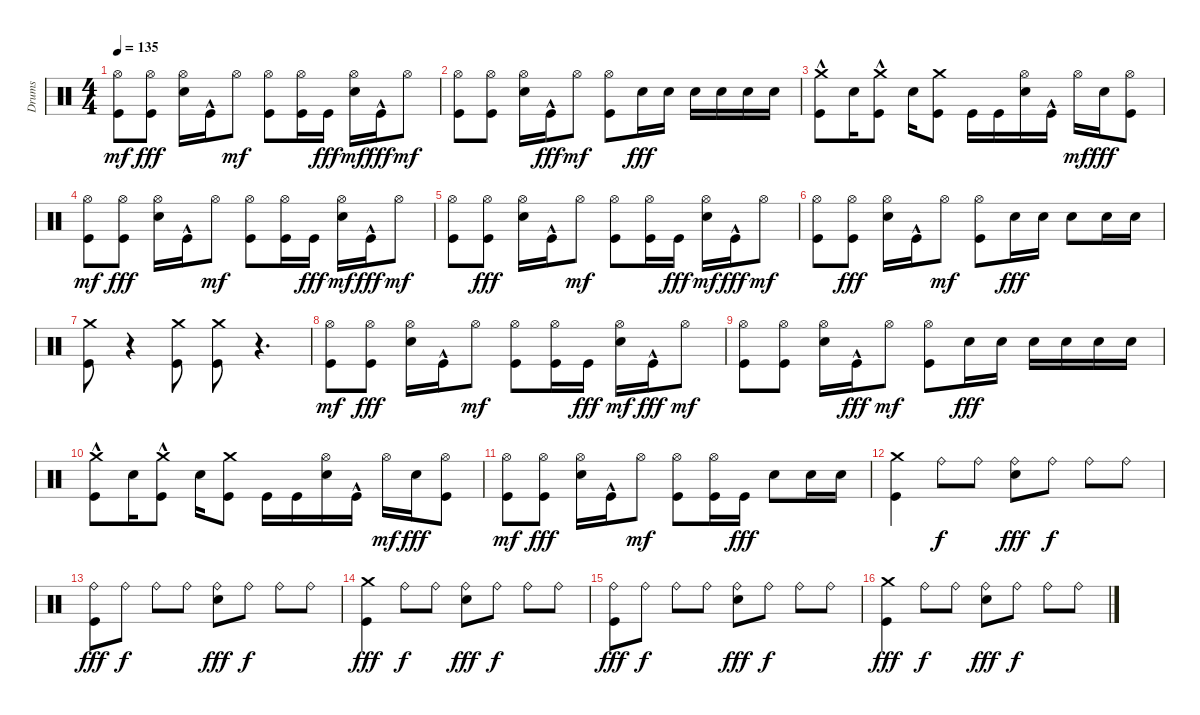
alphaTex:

\track ("Drums" "Drums") {instrument percussion}
\staff {score}
\articulation defaults
\ts (4 4)
\tempo 135
\clef neutral
\ks c
("Kick (hit)" "Hi-Hat (open)").8{dy mf} ("Hi-Hat (open)" "Kick (hit)").8{dy fff} ("Hi-Hat (open)" "Electric Snare (hit)").16 "Kick (hit)"{hac}.16 "Hi-Hat (open)".8{dy mf} ("Kick (hit)" "Hi-Hat (open)").8 ("Kick (hit)" "Hi-Hat (open)").16 "Kick (hit)".16{dy fff} ("Electric Snare (hit)" "Hi-Hat (open)").16{dy mf} "Kick (hit)"{hac}.16{dy fff} "Hi-Hat (open)".8{dy mf} |
("Kick (hit)" "Hi-Hat (open)").8 ("Kick (hit)" "Hi-Hat (open)").8 ("Electric Snare (hit)" "Hi-Hat (open)").16 "Kick (hit)"{hac}.16{dy fff} "Hi-Hat (open)".8{dy mf} ("Kick (hit)" "Hi-Hat (open)").8 "Electric Snare (hit)".16{dy fff} "Electric Snare (hit)".16 "Electric Snare (hit)".16 "Electric Snare (hit)".16 "Electric Snare (hit)".16 "Electric Snare (hit)".16 |
("Crash medium (hit)" "Kick (hit)"{hac}).8 "Electric Snare (hit)".16 ("Crash medium (hit)"{hac} "Kick (hit)"{hac}).8 "Electric Snare (hit)".16 ("Crash medium (hit)" "Kick (hit)").8 "Kick (hit)".16 "Kick (hit)".16 ("Hi-Hat (open)" "Electric Snare (hit)").16 "Kick (hit)"{hac}.16 "Hi-Hat (open)".16{dy mf} "Electric Snare (hit)".16{dy fff} ("Hi-Hat (open)" "Kick (hit)").8 |
("Kick (hit)" "Hi-Hat (open)").8{dy mf} ("Hi-Hat (open)" "Kick (hit)").8{dy fff} ("Hi-Hat (open)" "Electric Snare (hit)").16 "Kick (hit)"{hac}.16 "Hi-Hat (open)".8{dy mf} ("Kick (hit)" "Hi-Hat (open)").8 ("Kick (hit)" "Hi-Hat (open)").16 "Kick (hit)".16{dy fff} ("Electric Snare (hit)" "Hi-Hat (open)").16{dy mf} "Kick (hit)"{hac}.16{dy fff} "Hi-Hat (open)".8{dy mf} |
("Kick (hit)" "Hi-Hat (open)").8 ("Hi-Hat (open)" "Kick (hit)").8{dy fff} ("Hi-Hat (open)" "Electric Snare (hit)").16 "Kick (hit)"{hac}.16 "Hi-Hat (open)".8{dy mf} ("Kick (hit)" "Hi-Hat (open)").8 ("Kick (hit)" "Hi-Hat (open)").16 "Kick (hit)".16{dy fff} ("Electric Snare (hit)" "Hi-Hat (open)").16{dy mf} "Kick (hit)"{hac}.16{dy fff} "Hi-Hat (open)".8{dy mf} |
("Kick (hit)" "Hi-Hat (open)").8 ("Hi-Hat (open)" "Kick (hit)").8{dy fff} ("Hi-Hat (open)" "Electric Snare (hit)").16 "Kick (hit)"{hac}.16 "Hi-Hat (open)".8{dy mf} ("Kick (hit)" "Hi-Hat (open)").8 "Electric Snare (hit)".16{dy fff} "Electric Snare (hit)".16 "Electric Snare (hit)".8 "Electric Snare (hit)".16 "Electric Snare (hit)".16 |
("Kick (hit)" "Crash medium (hit)").8 r.4 ("Crash medium (hit)" "Kick (hit)").8 ("Kick (hit)" "Crash medium (hit)").8 r.4{d} |
("Kick (hit)" "Hi-Hat (open)").8{dy mf} ("Hi-Hat (open)" "Kick (hit)").8{dy fff} ("Hi-Hat (open)" "Electric Snare (hit)").16 "Kick (hit)"{hac}.16 "Hi-Hat (open)".8{dy mf} ("Kick (hit)" "Hi-Hat (open)").8 ("Kick (hit)" "Hi-Hat (open)").16 "Kick (hit)".16{dy fff} ("Electric Snare (hit)" "Hi-Hat (open)").16{dy mf} "Kick (hit)"{hac}.16{dy fff} "Hi-Hat (open)".8{dy mf} |
("Kick (hit)" "Hi-Hat (open)").8 ("Kick (hit)" "Hi-Hat (open)").8 ("Electric Snare (hit)" "Hi-Hat (open)").16 "Kick (hit)"{hac}.16{dy fff} "Hi-Hat (open)".8{dy mf} ("Kick (hit)" "Hi-Hat (open)").8 "Electric Snare (hit)".16{dy fff} "Electric Snare (hit)".16 "Electric Snare (hit)".16 "Electric Snare (hit)".16 "Electric Snare (hit)".16 "Electric Snare (hit)".16 |
("Crash medium (hit)" "Kick (hit)"{hac}).8 "Electric Snare (hit)".16 ("Crash medium (hit)"{hac} "Kick (hit)"{hac}).8 "Electric Snare (hit)".16 ("Crash medium (hit)" "Kick (hit)").8 "Kick (hit)".16 "Kick (hit)".16 ("Hi-Hat (open)" "Electric Snare (hit)").16 "Kick (hit)"{hac}.16 "Hi-Hat (open)".16{dy mf} "Electric Snare (hit)".16{dy fff} ("Hi-Hat (open)" "Kick (hit)").8 |
("Kick (hit)" "Hi-Hat (open)").8{dy mf} ("Hi-Hat (open)" "Kick (hit)").8{dy fff} ("Hi-Hat (open)" "Electric Snare (hit)").16 "Kick (hit)"{hac}.16 "Hi-Hat (open)".8{dy mf} ("Kick (hit)" "Hi-Hat (open)").8 ("Kick (hit)" "Hi-Hat (open)").16 "Kick (hit)".16{dy fff} "Electric Snare (hit)".8 "Electric Snare (hit)".16 "Electric Snare (hit)".16 |
("Kick (hit)" "Crash medium (hit)").4 "Ride (bell)".8{dy f} "Ride (bell)".8 ("Electric Snare (hit)" "Ride (bell)").8{dy fff} "Ride (bell)".8{dy f} "Ride (bell)".8 "Ride (bell)".8 |
("Kick (hit)" "Ride (bell)").8{dy fff} "Ride (bell)".8{dy f} "Ride (bell)".8 "Ride (bell)".8 ("Electric Snare (hit)" "Ride (bell)").8{dy fff} "Ride (bell)".8{dy f} "Ride (bell)".8 "Ride (bell)".8 |
("Kick (hit)" "Crash medium (hit)").4{dy fff} "Ride (bell)".8{dy f} "Ride (bell)".8 ("Electric Snare (hit)" "Ride (bell)").8{dy fff} "Ride (bell)".8{dy f} "Ride (bell)".8 "Ride (bell)".8 |
("Kick (hit)" "Ride (bell)").8{dy fff} "Ride (bell)".8{dy f} "Ride (bell)".8 "Ride (bell)".8 ("Electric Snare (hit)" "Ride (bell)").8{dy fff} "Ride (bell)".8{dy f} "Ride (bell)".8 "Ride (bell)".8 |
("Kick (hit)" "Crash medium (hit)").4{dy fff} "Ride (bell)".8{dy f} "Ride (bell)".8 ("Electric Snare (hit)" "Ride (bell)").8{dy fff} "Ride (bell)".8{dy f} "Ride (bell)".8 "Ride (bell)".8
